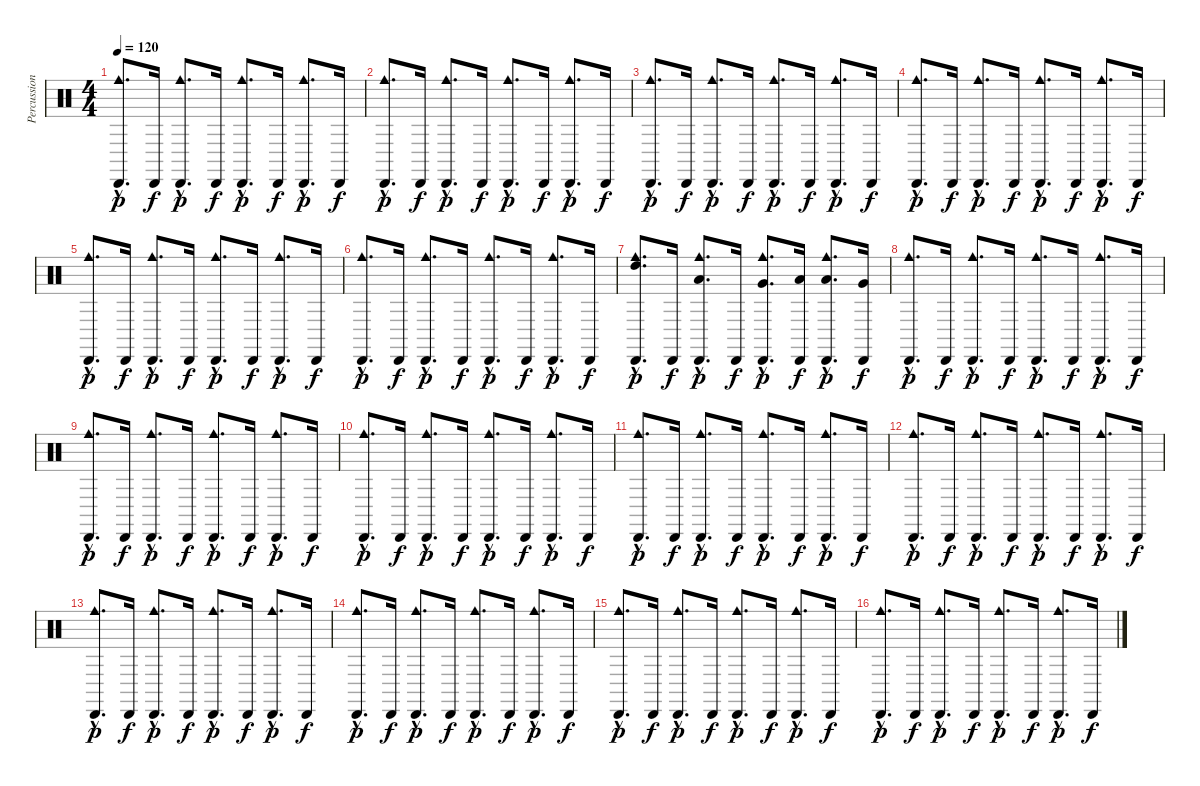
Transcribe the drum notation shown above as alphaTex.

\track ("Percussions" "Percussion") {instrument percussion}
\staff {score}
\articulation defaults
\ts (4 4)
\tempo 120
\clef neutral
\ks c
("Cabasa (hit)"{hac} "Cowbell medium (hit)"{hac}).8{d dy p} "Cabasa (hit)".16{dy f} ("Cabasa (hit)"{hac} "Cowbell medium (hit)"{hac}).8{d dy p} "Cabasa (hit)".16{dy f} ("Cabasa (hit)"{hac} "Cowbell medium (hit)"{hac}).8{d dy p} "Cabasa (hit)".16{dy f} ("Cabasa (hit)"{hac} "Cowbell medium (hit)"{hac}).8{d dy p} "Cabasa (hit)".16{dy f} |
("Cabasa (hit)"{hac} "Cowbell medium (hit)"{hac}).8{d dy p} "Cabasa (hit)".16{dy f} ("Cabasa (hit)"{hac} "Cowbell medium (hit)"{hac}).8{d dy p} "Cabasa (hit)".16{dy f} ("Cabasa (hit)"{hac} "Cowbell medium (hit)"{hac}).8{d dy p} "Cabasa (hit)".16{dy f} ("Cabasa (hit)"{hac} "Cowbell medium (hit)"{hac}).8{d dy p} "Cabasa (hit)".16{dy f} |
("Cabasa (hit)"{hac} "Cowbell medium (hit)"{hac}).8{d dy p} "Cabasa (hit)".16{dy f} ("Cabasa (hit)"{hac} "Cowbell medium (hit)"{hac}).8{d dy p} "Cabasa (hit)".16{dy f} ("Cabasa (hit)"{hac} "Cowbell medium (hit)"{hac}).8{d dy p} "Cabasa (hit)".16{dy f} ("Cabasa (hit)"{hac} "Cowbell medium (hit)"{hac}).8{d dy p} "Cabasa (hit)".16{dy f} |
("Cabasa (hit)"{hac} "Cowbell medium (hit)"{hac}).8{d dy p} "Cabasa (hit)".16{dy f} ("Cabasa (hit)"{hac} "Cowbell medium (hit)"{hac}).8{d dy p} "Cabasa (hit)".16{dy f} ("Cabasa (hit)"{hac} "Cowbell medium (hit)"{hac}).8{d dy p} "Cabasa (hit)".16{dy f} ("Cabasa (hit)"{hac} "Cowbell medium (hit)"{hac}).8{d dy p} "Cabasa (hit)".16{dy f} |
("Cabasa (hit)"{hac} "Cowbell medium (hit)"{hac}).8{d dy p} "Cabasa (hit)".16{dy f} ("Cabasa (hit)"{hac} "Cowbell medium (hit)"{hac}).8{d dy p} "Cabasa (hit)".16{dy f} ("Cabasa (hit)"{hac} "Cowbell medium (hit)"{hac}).8{d dy p} "Cabasa (hit)".16{dy f} ("Cabasa (hit)"{hac} "Cowbell medium (hit)"{hac}).8{d dy p} "Cabasa (hit)".16{dy f} |
("Cabasa (hit)"{hac} "Cowbell medium (hit)"{hac}).8{d dy p} "Cabasa (hit)".16{dy f} ("Cabasa (hit)"{hac} "Cowbell medium (hit)"{hac}).8{d dy p} "Cabasa (hit)".16{dy f} ("Cabasa (hit)"{hac} "Cowbell medium (hit)"{hac}).8{d dy p} "Cabasa (hit)".16{dy f} ("Cabasa (hit)"{hac} "Cowbell medium (hit)"{hac}).8{d dy p} "Cabasa (hit)".16{dy f} |
("Cabasa (hit)"{hac} "Cowbell medium (hit)"{hac} "High Tom (hit)"{hac}).8{d dy p} "Cabasa (hit)".16{dy f} ("Cabasa (hit)"{hac} "Cowbell medium (hit)"{hac} "Low Tom (hit)"{hac}).8{d dy p} "Cabasa (hit)".16{dy f} ("Cabasa (hit)"{hac} "Cowbell medium (hit)"{hac} "Very Low Tom (hit)"{hac}).8{d dy p} ("Cabasa (hit)" "Low Floor Tom (hit)").16{dy f} ("Cabasa (hit)"{hac} "Cowbell medium (hit)"{hac} "Low Tom (hit)"{hac}).8{d dy p} ("Cabasa (hit)" "Very Low Tom (hit)").16{dy f} |
("Cabasa (hit)"{hac} "Cowbell medium (hit)"{hac}).8{d dy p} "Cabasa (hit)".16{dy f} ("Cabasa (hit)"{hac} "Cowbell medium (hit)"{hac}).8{d dy p} "Cabasa (hit)".16{dy f} ("Cabasa (hit)"{hac} "Cowbell medium (hit)"{hac}).8{d dy p} "Cabasa (hit)".16{dy f} ("Cabasa (hit)"{hac} "Cowbell medium (hit)"{hac}).8{d dy p} "Cabasa (hit)".16{dy f} |
("Cabasa (hit)"{hac} "Cowbell medium (hit)"{hac}).8{d dy p} "Cabasa (hit)".16{dy f} ("Cabasa (hit)"{hac} "Cowbell medium (hit)"{hac}).8{d dy p} "Cabasa (hit)".16{dy f} ("Cabasa (hit)"{hac} "Cowbell medium (hit)"{hac}).8{d dy p} "Cabasa (hit)".16{dy f} ("Cabasa (hit)"{hac} "Cowbell medium (hit)"{hac}).8{d dy p} "Cabasa (hit)".16{dy f} |
("Cabasa (hit)"{hac} "Cowbell medium (hit)"{hac}).8{d dy p} "Cabasa (hit)".16{dy f} ("Cabasa (hit)"{hac} "Cowbell medium (hit)"{hac}).8{d dy p} "Cabasa (hit)".16{dy f} ("Cabasa (hit)"{hac} "Cowbell medium (hit)"{hac}).8{d dy p} "Cabasa (hit)".16{dy f} ("Cabasa (hit)"{hac} "Cowbell medium (hit)"{hac}).8{d dy p} "Cabasa (hit)".16{dy f} |
("Cabasa (hit)"{hac} "Cowbell medium (hit)"{hac}).8{d dy p} "Cabasa (hit)".16{dy f} ("Cabasa (hit)"{hac} "Cowbell medium (hit)"{hac}).8{d dy p} "Cabasa (hit)".16{dy f} ("Cabasa (hit)"{hac} "Cowbell medium (hit)"{hac}).8{d dy p} "Cabasa (hit)".16{dy f} ("Cabasa (hit)"{hac} "Cowbell medium (hit)"{hac}).8{d dy p} "Cabasa (hit)".16{dy f} |
("Cabasa (hit)"{hac} "Cowbell medium (hit)"{hac}).8{d dy p} "Cabasa (hit)".16{dy f} ("Cabasa (hit)"{hac} "Cowbell medium (hit)"{hac}).8{d dy p} "Cabasa (hit)".16{dy f} ("Cabasa (hit)"{hac} "Cowbell medium (hit)"{hac}).8{d dy p} "Cabasa (hit)".16{dy f} ("Cabasa (hit)"{hac} "Cowbell medium (hit)"{hac}).8{d dy p} "Cabasa (hit)".16{dy f} |
("Cabasa (hit)"{hac} "Cowbell medium (hit)"{hac}).8{d dy p} "Cabasa (hit)".16{dy f} ("Cabasa (hit)"{hac} "Cowbell medium (hit)"{hac}).8{d dy p} "Cabasa (hit)".16{dy f} ("Cabasa (hit)"{hac} "Cowbell medium (hit)"{hac}).8{d dy p} "Cabasa (hit)".16{dy f} ("Cabasa (hit)"{hac} "Cowbell medium (hit)"{hac}).8{d dy p} "Cabasa (hit)".16{dy f} |
("Cabasa (hit)"{hac} "Cowbell medium (hit)"{hac}).8{d dy p} "Cabasa (hit)".16{dy f} ("Cabasa (hit)"{hac} "Cowbell medium (hit)"{hac}).8{d dy p} "Cabasa (hit)".16{dy f} ("Cabasa (hit)"{hac} "Cowbell medium (hit)"{hac}).8{d dy p} "Cabasa (hit)".16{dy f} ("Cabasa (hit)"{hac} "Cowbell medium (hit)"{hac}).8{d dy p} "Cabasa (hit)".16{dy f} |
("Cabasa (hit)"{hac} "Cowbell medium (hit)"{hac}).8{d dy p} "Cabasa (hit)".16{dy f} ("Cabasa (hit)"{hac} "Cowbell medium (hit)"{hac}).8{d dy p} "Cabasa (hit)".16{dy f} ("Cabasa (hit)"{hac} "Cowbell medium (hit)"{hac}).8{d dy p} "Cabasa (hit)".16{dy f} ("Cabasa (hit)"{hac} "Cowbell medium (hit)"{hac}).8{d dy p} "Cabasa (hit)".16{dy f} |
("Cabasa (hit)"{hac} "Cowbell medium (hit)"{hac}).8{d dy p} "Cabasa (hit)".16{dy f} ("Cabasa (hit)"{hac} "Cowbell medium (hit)"{hac}).8{d dy p} "Cabasa (hit)".16{dy f} ("Cabasa (hit)"{hac} "Cowbell medium (hit)"{hac}).8{d dy p} "Cabasa (hit)".16{dy f} ("Cabasa (hit)"{hac} "Cowbell medium (hit)"{hac}).8{d dy p} "Cabasa (hit)".16{dy f}
